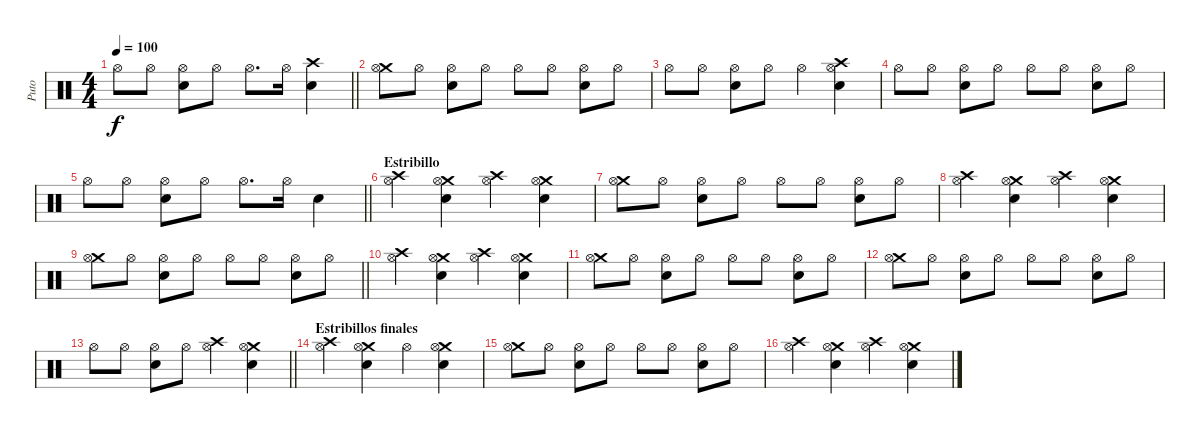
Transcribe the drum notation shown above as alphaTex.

\track ("Puto" "Puto") {instrument percussion}
\staff {score}
\articulation defaults
\ts (4 4)
\tempo 100
\clef neutral
\barLineRight lightlight
\ks c "Hi-Hat (open)".8{dy f} "Hi-Hat (open)".8
("Snare (hit) 2" "Hi-Hat (open)").8 "Hi-Hat (open)".8 "Hi-Hat (open)".8{d} "Hi-Hat (open)".16 ("Crash high (hit)" "Snare (hit) 2").4 |
("Crash medium (hit)" "Hi-Hat (open)").8 "Hi-Hat (open)".8 ("Snare (hit) 2" "Hi-Hat (open)").8 "Hi-Hat (open)".8 "Hi-Hat (open)".8 "Hi-Hat (open)".8 ("Snare (hit) 2" "Hi-Hat (open)").8 "Hi-Hat (open)".8 |
"Hi-Hat (open)".8 "Hi-Hat (open)".8 ("Snare (hit) 2" "Hi-Hat (open)").8 "Hi-Hat (open)".8 "Hi-Hat (open)".4 ("Crash high (hit)" "Snare (hit) 2" "Hi-Hat (open)").4 |
"Hi-Hat (open)".8 "Hi-Hat (open)".8 ("Snare (hit) 2" "Hi-Hat (open)").8 "Hi-Hat (open)".8 "Hi-Hat (open)".8 "Hi-Hat (open)".8 ("Snare (hit) 2" "Hi-Hat (open)").8 "Hi-Hat (open)".8 |
\barLineRight lightlight "Hi-Hat (open)".8 "Hi-Hat (open)".8
("Snare (hit) 2" "Hi-Hat (open)").8 "Hi-Hat (open)".8 "Hi-Hat (open)".8{d} "Hi-Hat (open)".16 "Snare (hit) 2".4 |
\section ("" "Estribillo")
("Crash high (hit)" "Hi-Hat (open)").4 ("Crash medium (hit)" "Snare (hit) 2" "Hi-Hat (open)").4 ("Crash high (hit)" "Hi-Hat (open)").4 ("Crash medium (hit)" "Snare (hit) 2" "Hi-Hat (open)").4 |
("Crash medium (hit)" "Hi-Hat (open)").8 "Hi-Hat (open)".8 ("Snare (hit) 2" "Hi-Hat (open)").8 "Hi-Hat (open)".8 "Hi-Hat (open)".8 "Hi-Hat (open)".8 ("Snare (hit) 2" "Hi-Hat (open)").8 "Hi-Hat (open)".8 |
("Crash high (hit)" "Hi-Hat (open)").4 ("Crash medium (hit)" "Snare (hit) 2" "Hi-Hat (open)").4 ("Crash high (hit)" "Hi-Hat (open)").4 ("Crash medium (hit)" "Snare (hit) 2" "Hi-Hat (open)").4 |
\barLineRight lightlight
("Crash medium (hit)" "Hi-Hat (open)").8 "Hi-Hat (open)".8 ("Snare (hit) 2" "Hi-Hat (open)").8 "Hi-Hat (open)".8 "Hi-Hat (open)".8 "Hi-Hat (open)".8 ("Snare (hit) 2" "Hi-Hat (open)").8 "Hi-Hat (open)".8 |
("Crash high (hit)" "Hi-Hat (open)").4 ("Crash medium (hit)" "Snare (hit) 2" "Hi-Hat (open)").4 ("Crash high (hit)" "Hi-Hat (open)").4 ("Crash medium (hit)" "Snare (hit) 2" "Hi-Hat (open)").4 |
("Crash medium (hit)" "Hi-Hat (open)").8 "Hi-Hat (open)".8 ("Snare (hit) 2" "Hi-Hat (open)").8 "Hi-Hat (open)".8 "Hi-Hat (open)".8 "Hi-Hat (open)".8 ("Snare (hit) 2" "Hi-Hat (open)").8 "Hi-Hat (open)".8 |
("Crash medium (hit)" "Hi-Hat (open)").8 "Hi-Hat (open)".8 ("Snare (hit) 2" "Hi-Hat (open)").8 "Hi-Hat (open)".8 "Hi-Hat (open)".8 "Hi-Hat (open)".8 ("Snare (hit) 2" "Hi-Hat (open)").8 "Hi-Hat (open)".8 |
\barLineRight lightlight "Hi-Hat (open)".8 "Hi-Hat (open)".8
("Snare (hit) 2" "Hi-Hat (open)").8 "Hi-Hat (open)".8 ("Crash high (hit)" "Hi-Hat (open)").4 ("Crash medium (hit)" "Snare (hit) 2" "Hi-Hat (open)").4 |
\section ("" "Estribillos finales")
("Crash high (hit)" "Hi-Hat (open)").4 ("Crash medium (hit)" "Snare (hit) 2" "Hi-Hat (open)").4 "Hi-Hat (open)".4 ("Crash medium (hit)" "Snare (hit) 2" "Hi-Hat (open)").4 |
("Crash medium (hit)" "Hi-Hat (open)").8 "Hi-Hat (open)".8 ("Snare (hit) 2" "Hi-Hat (open)").8 "Hi-Hat (open)".8 "Hi-Hat (open)".8 "Hi-Hat (open)".8 ("Snare (hit) 2" "Hi-Hat (open)").8 "Hi-Hat (open)".8 |
("Crash high (hit)" "Hi-Hat (open)").4 ("Crash medium (hit)" "Snare (hit) 2" "Hi-Hat (open)").4 ("Crash high (hit)" "Hi-Hat (open)").4 ("Crash medium (hit)" "Snare (hit) 2" "Hi-Hat (open)").4
